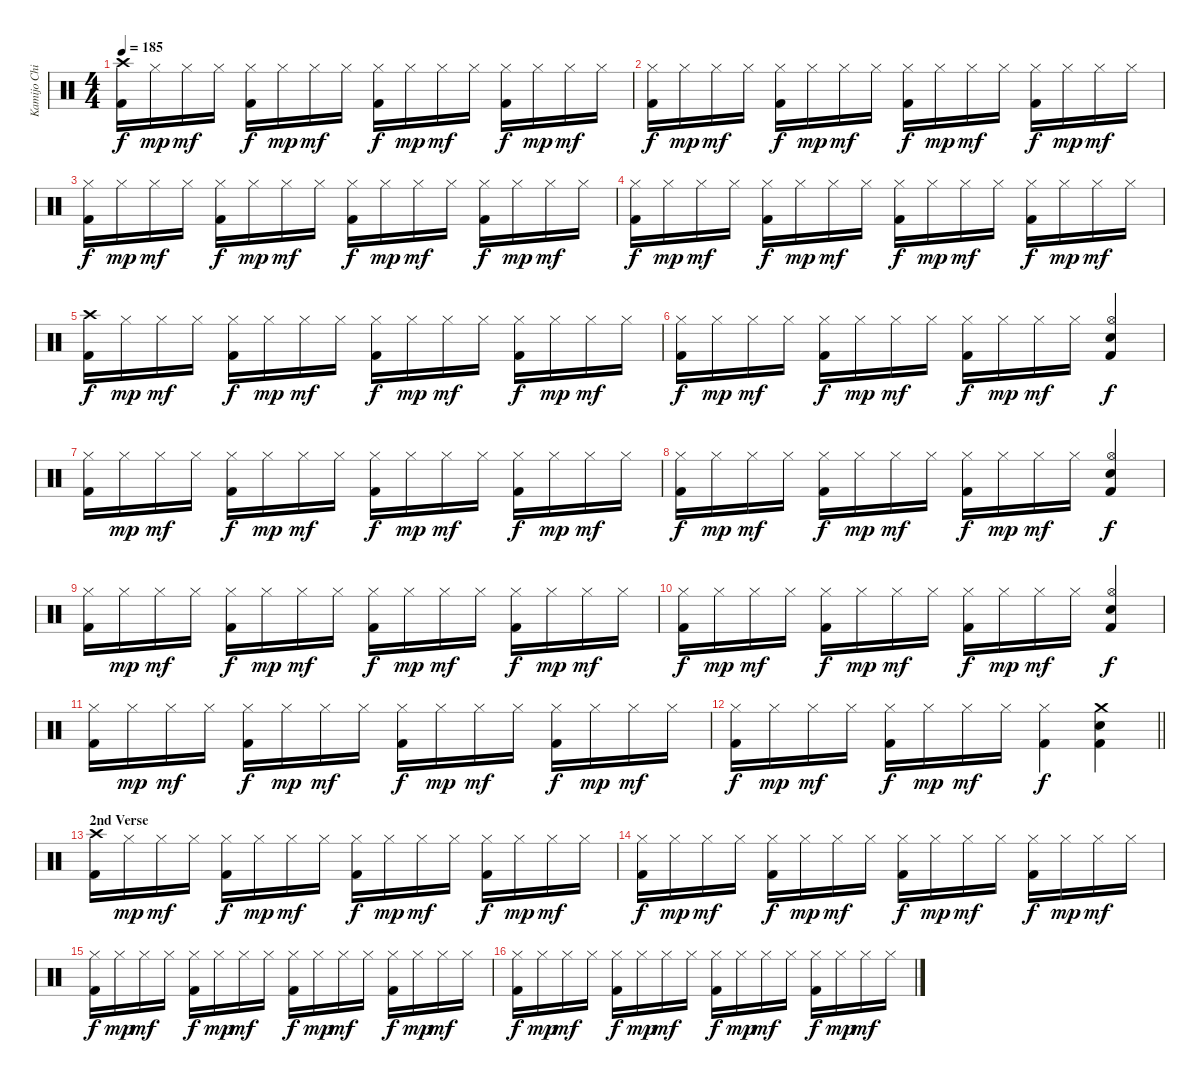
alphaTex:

\track ("Kamijo Chihiro" "Kamijo Chi") {instrument percussion}
\staff {score}
\articulation defaults
\ts (4 4)
\tempo 185
\clef neutral
\ks c
("Crash high (hit)" "Kick (hit) 2").16{dy f} "Hi-Hat (closed)".16{dy mp} "Hi-Hat (closed)".16{dy mf} "Hi-Hat (closed)".16 ("Hi-Hat (closed)" "Kick (hit) 2").16{dy f} "Hi-Hat (closed)".16{dy mp} "Hi-Hat (closed)".16{dy mf} "Hi-Hat (closed)".16 ("Hi-Hat (closed)" "Kick (hit) 2").16{dy f} "Hi-Hat (closed)".16{dy mp} "Hi-Hat (closed)".16{dy mf} "Hi-Hat (closed)".16 ("Hi-Hat (closed)" "Kick (hit) 2").16{dy f} "Hi-Hat (closed)".16{dy mp} "Hi-Hat (closed)".16{dy mf} "Hi-Hat (closed)".16 |
("Hi-Hat (closed)" "Kick (hit) 2").16{dy f} "Hi-Hat (closed)".16{dy mp} "Hi-Hat (closed)".16{dy mf} "Hi-Hat (closed)".16 ("Hi-Hat (closed)" "Kick (hit) 2").16{dy f} "Hi-Hat (closed)".16{dy mp} "Hi-Hat (closed)".16{dy mf} "Hi-Hat (closed)".16 ("Hi-Hat (closed)" "Kick (hit) 2").16{dy f} "Hi-Hat (closed)".16{dy mp} "Hi-Hat (closed)".16{dy mf} "Hi-Hat (closed)".16 ("Hi-Hat (closed)" "Kick (hit) 2").16{dy f} "Hi-Hat (closed)".16{dy mp} "Hi-Hat (closed)".16{dy mf} "Hi-Hat (closed)".16 |
("Hi-Hat (closed)" "Kick (hit) 2").16{dy f} "Hi-Hat (closed)".16{dy mp} "Hi-Hat (closed)".16{dy mf} "Hi-Hat (closed)".16 ("Hi-Hat (closed)" "Kick (hit) 2").16{dy f} "Hi-Hat (closed)".16{dy mp} "Hi-Hat (closed)".16{dy mf} "Hi-Hat (closed)".16 ("Hi-Hat (closed)" "Kick (hit) 2").16{dy f} "Hi-Hat (closed)".16{dy mp} "Hi-Hat (closed)".16{dy mf} "Hi-Hat (closed)".16 ("Hi-Hat (closed)" "Kick (hit) 2").16{dy f} "Hi-Hat (closed)".16{dy mp} "Hi-Hat (closed)".16{dy mf} "Hi-Hat (closed)".16 |
("Hi-Hat (closed)" "Kick (hit) 2").16{dy f} "Hi-Hat (closed)".16{dy mp} "Hi-Hat (closed)".16{dy mf} "Hi-Hat (closed)".16 ("Hi-Hat (closed)" "Kick (hit) 2").16{dy f} "Hi-Hat (closed)".16{dy mp} "Hi-Hat (closed)".16{dy mf} "Hi-Hat (closed)".16 ("Hi-Hat (closed)" "Kick (hit) 2").16{dy f} "Hi-Hat (closed)".16{dy mp} "Hi-Hat (closed)".16{dy mf} "Hi-Hat (closed)".16 ("Hi-Hat (closed)" "Kick (hit) 2").16{dy f} "Hi-Hat (closed)".16{dy mp} "Hi-Hat (closed)".16{dy mf} "Hi-Hat (closed)".16 |
("Crash high (hit)" "Kick (hit) 2").16{dy f} "Hi-Hat (closed)".16{dy mp} "Hi-Hat (closed)".16{dy mf} "Hi-Hat (closed)".16 ("Hi-Hat (closed)" "Kick (hit) 2").16{dy f} "Hi-Hat (closed)".16{dy mp} "Hi-Hat (closed)".16{dy mf} "Hi-Hat (closed)".16 ("Hi-Hat (closed)" "Kick (hit) 2").16{dy f} "Hi-Hat (closed)".16{dy mp} "Hi-Hat (closed)".16{dy mf} "Hi-Hat (closed)".16 ("Hi-Hat (closed)" "Kick (hit) 2").16{dy f} "Hi-Hat (closed)".16{dy mp} "Hi-Hat (closed)".16{dy mf} "Hi-Hat (closed)".16 |
("Hi-Hat (closed)" "Kick (hit) 2").16{dy f} "Hi-Hat (closed)".16{dy mp} "Hi-Hat (closed)".16{dy mf} "Hi-Hat (closed)".16 ("Hi-Hat (closed)" "Kick (hit) 2").16{dy f} "Hi-Hat (closed)".16{dy mp} "Hi-Hat (closed)".16{dy mf} "Hi-Hat (closed)".16 ("Hi-Hat (closed)" "Kick (hit) 2").16{dy f} "Hi-Hat (closed)".16{dy mp} "Hi-Hat (closed)".16{dy mf} "Hi-Hat (closed)".16 ("Hi-Hat (open)" "Snare (hit) 2" "Kick (hit) 2").4{dy f} |
("Hi-Hat (closed)" "Kick (hit) 2").16 "Hi-Hat (closed)".16{dy mp} "Hi-Hat (closed)".16{dy mf} "Hi-Hat (closed)".16 ("Hi-Hat (closed)" "Kick (hit) 2").16{dy f} "Hi-Hat (closed)".16{dy mp} "Hi-Hat (closed)".16{dy mf} "Hi-Hat (closed)".16 ("Hi-Hat (closed)" "Kick (hit) 2").16{dy f} "Hi-Hat (closed)".16{dy mp} "Hi-Hat (closed)".16{dy mf} "Hi-Hat (closed)".16 ("Hi-Hat (closed)" "Kick (hit) 2").16{dy f} "Hi-Hat (closed)".16{dy mp} "Hi-Hat (closed)".16{dy mf} "Hi-Hat (closed)".16 |
("Hi-Hat (closed)" "Kick (hit) 2").16{dy f} "Hi-Hat (closed)".16{dy mp} "Hi-Hat (closed)".16{dy mf} "Hi-Hat (closed)".16 ("Hi-Hat (closed)" "Kick (hit) 2").16{dy f} "Hi-Hat (closed)".16{dy mp} "Hi-Hat (closed)".16{dy mf} "Hi-Hat (closed)".16 ("Hi-Hat (closed)" "Kick (hit) 2").16{dy f} "Hi-Hat (closed)".16{dy mp} "Hi-Hat (closed)".16{dy mf} "Hi-Hat (closed)".16 ("Hi-Hat (open)" "Snare (hit) 2" "Kick (hit) 2").4{dy f} |
("Hi-Hat (closed)" "Kick (hit) 2").16 "Hi-Hat (closed)".16{dy mp} "Hi-Hat (closed)".16{dy mf} "Hi-Hat (closed)".16 ("Hi-Hat (closed)" "Kick (hit) 2").16{dy f} "Hi-Hat (closed)".16{dy mp} "Hi-Hat (closed)".16{dy mf} "Hi-Hat (closed)".16 ("Hi-Hat (closed)" "Kick (hit) 2").16{dy f} "Hi-Hat (closed)".16{dy mp} "Hi-Hat (closed)".16{dy mf} "Hi-Hat (closed)".16 ("Hi-Hat (closed)" "Kick (hit) 2").16{dy f} "Hi-Hat (closed)".16{dy mp} "Hi-Hat (closed)".16{dy mf} "Hi-Hat (closed)".16 |
("Hi-Hat (closed)" "Kick (hit) 2").16{dy f} "Hi-Hat (closed)".16{dy mp} "Hi-Hat (closed)".16{dy mf} "Hi-Hat (closed)".16 ("Hi-Hat (closed)" "Kick (hit) 2").16{dy f} "Hi-Hat (closed)".16{dy mp} "Hi-Hat (closed)".16{dy mf} "Hi-Hat (closed)".16 ("Hi-Hat (closed)" "Kick (hit) 2").16{dy f} "Hi-Hat (closed)".16{dy mp} "Hi-Hat (closed)".16{dy mf} "Hi-Hat (closed)".16 ("Hi-Hat (open)" "Snare (hit) 2" "Kick (hit) 2").4{dy f} |
("Hi-Hat (closed)" "Kick (hit) 2").16 "Hi-Hat (closed)".16{dy mp} "Hi-Hat (closed)".16{dy mf} "Hi-Hat (closed)".16 ("Hi-Hat (closed)" "Kick (hit) 2").16{dy f} "Hi-Hat (closed)".16{dy mp} "Hi-Hat (closed)".16{dy mf} "Hi-Hat (closed)".16 ("Hi-Hat (closed)" "Kick (hit) 2").16{dy f} "Hi-Hat (closed)".16{dy mp} "Hi-Hat (closed)".16{dy mf} "Hi-Hat (closed)".16 ("Hi-Hat (closed)" "Kick (hit) 2").16{dy f} "Hi-Hat (closed)".16{dy mp} "Hi-Hat (closed)".16{dy mf} "Hi-Hat (closed)".16 |
\barLineRight lightlight
("Hi-Hat (closed)" "Kick (hit) 2").16{dy f} "Hi-Hat (closed)".16{dy mp} "Hi-Hat (closed)".16{dy mf} "Hi-Hat (closed)".16 ("Hi-Hat (closed)" "Kick (hit) 2").16{dy f} "Hi-Hat (closed)".16{dy mp} "Hi-Hat (closed)".16{dy mf} "Hi-Hat (closed)".16 ("Hi-Hat (closed)" "Kick (hit) 2").4{dy f} ("Crash medium (hit)" "Snare (hit) 2" "Kick (hit) 2").4 |
\section ("" "2nd Verse")
("Crash high (hit)" "Kick (hit) 2").16 "Hi-Hat (closed)".16{dy mp} "Hi-Hat (closed)".16{dy mf} "Hi-Hat (closed)".16 ("Hi-Hat (closed)" "Kick (hit) 2").16{dy f} "Hi-Hat (closed)".16{dy mp} "Hi-Hat (closed)".16{dy mf} "Hi-Hat (closed)".16 ("Hi-Hat (closed)" "Kick (hit) 2").16{dy f} "Hi-Hat (closed)".16{dy mp} "Hi-Hat (closed)".16{dy mf} "Hi-Hat (closed)".16 ("Hi-Hat (closed)" "Kick (hit) 2").16{dy f} "Hi-Hat (closed)".16{dy mp} "Hi-Hat (closed)".16{dy mf} "Hi-Hat (closed)".16 |
("Hi-Hat (closed)" "Kick (hit) 2").16{dy f} "Hi-Hat (closed)".16{dy mp} "Hi-Hat (closed)".16{dy mf} "Hi-Hat (closed)".16 ("Hi-Hat (closed)" "Kick (hit) 2").16{dy f} "Hi-Hat (closed)".16{dy mp} "Hi-Hat (closed)".16{dy mf} "Hi-Hat (closed)".16 ("Hi-Hat (closed)" "Kick (hit) 2").16{dy f} "Hi-Hat (closed)".16{dy mp} "Hi-Hat (closed)".16{dy mf} "Hi-Hat (closed)".16 ("Hi-Hat (closed)" "Kick (hit) 2").16{dy f} "Hi-Hat (closed)".16{dy mp} "Hi-Hat (closed)".16{dy mf} "Hi-Hat (closed)".16 |
("Hi-Hat (closed)" "Kick (hit) 2").16{dy f} "Hi-Hat (closed)".16{dy mp} "Hi-Hat (closed)".16{dy mf} "Hi-Hat (closed)".16 ("Hi-Hat (closed)" "Kick (hit) 2").16{dy f} "Hi-Hat (closed)".16{dy mp} "Hi-Hat (closed)".16{dy mf} "Hi-Hat (closed)".16 ("Hi-Hat (closed)" "Kick (hit) 2").16{dy f} "Hi-Hat (closed)".16{dy mp} "Hi-Hat (closed)".16{dy mf} "Hi-Hat (closed)".16 ("Hi-Hat (closed)" "Kick (hit) 2").16{dy f} "Hi-Hat (closed)".16{dy mp} "Hi-Hat (closed)".16{dy mf} "Hi-Hat (closed)".16 |
("Hi-Hat (closed)" "Kick (hit) 2").16{dy f} "Hi-Hat (closed)".16{dy mp} "Hi-Hat (closed)".16{dy mf} "Hi-Hat (closed)".16 ("Hi-Hat (closed)" "Kick (hit) 2").16{dy f} "Hi-Hat (closed)".16{dy mp} "Hi-Hat (closed)".16{dy mf} "Hi-Hat (closed)".16 ("Hi-Hat (closed)" "Kick (hit) 2").16{dy f} "Hi-Hat (closed)".16{dy mp} "Hi-Hat (closed)".16{dy mf} "Hi-Hat (closed)".16 ("Hi-Hat (closed)" "Kick (hit) 2").16{dy f} "Hi-Hat (closed)".16{dy mp} "Hi-Hat (closed)".16{dy mf} "Hi-Hat (closed)".16
